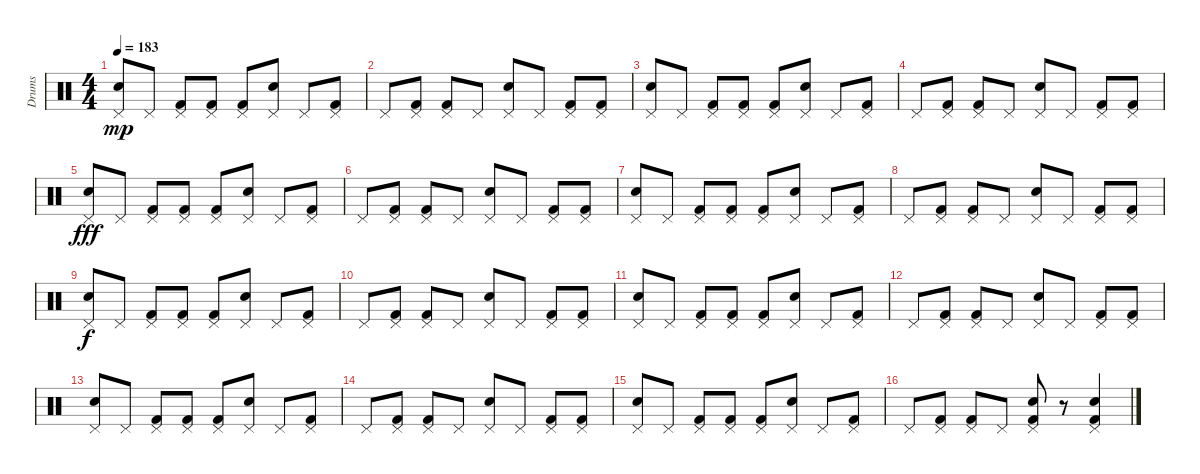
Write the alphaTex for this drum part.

\track ("Drums" "Drums") {instrument percussion}
\staff {score}
\articulation defaults
\ts (4 4)
\tempo 183
\clef neutral
\ks c
("Snare (hit) 2" "Pedal Hi-Hat (hit)").8{dy mp} "Pedal Hi-Hat (hit)".8 ("Kick (hit) 2" "Pedal Hi-Hat (hit)").8 ("Kick (hit) 2" "Pedal Hi-Hat (hit)").8 ("Pedal Hi-Hat (hit)" "Kick (hit) 2").8 ("Snare (hit) 2" "Pedal Hi-Hat (hit)").8 "Pedal Hi-Hat (hit)".8 ("Kick (hit) 2" "Pedal Hi-Hat (hit)").8 |
"Pedal Hi-Hat (hit)".8 ("Kick (hit) 2" "Pedal Hi-Hat (hit)").8 ("Kick (hit) 2" "Pedal Hi-Hat (hit)").8 "Pedal Hi-Hat (hit)".8 ("Snare (hit) 2" "Pedal Hi-Hat (hit)").8 "Pedal Hi-Hat (hit)".8 ("Kick (hit) 2" "Pedal Hi-Hat (hit)").8 ("Pedal Hi-Hat (hit)" "Kick (hit) 2").8 |
("Snare (hit) 2" "Pedal Hi-Hat (hit)").8 "Pedal Hi-Hat (hit)".8 ("Kick (hit) 2" "Pedal Hi-Hat (hit)").8 ("Pedal Hi-Hat (hit)" "Kick (hit) 2").8 ("Kick (hit) 2" "Pedal Hi-Hat (hit)").8 ("Pedal Hi-Hat (hit)" "Snare (hit) 2").8 "Pedal Hi-Hat (hit)".8 ("Kick (hit) 2" "Pedal Hi-Hat (hit)").8 |
"Pedal Hi-Hat (hit)".8 ("Pedal Hi-Hat (hit)" "Kick (hit) 2").8 ("Kick (hit) 2" "Pedal Hi-Hat (hit)").8 "Pedal Hi-Hat (hit)".8 ("Snare (hit) 2" "Pedal Hi-Hat (hit)").8 "Pedal Hi-Hat (hit)".8 ("Pedal Hi-Hat (hit)" "Kick (hit) 2").8 ("Pedal Hi-Hat (hit)" "Kick (hit) 2").8 |
("Pedal Hi-Hat (hit)" "Snare (hit) 2").8{dy fff} "Pedal Hi-Hat (hit)".8 ("Kick (hit) 2" "Pedal Hi-Hat (hit)").8 ("Kick (hit) 2" "Pedal Hi-Hat (hit)").8 ("Kick (hit) 2" "Pedal Hi-Hat (hit)").8 ("Pedal Hi-Hat (hit)" "Snare (hit) 2").8 "Pedal Hi-Hat (hit)".8 ("Kick (hit) 2" "Pedal Hi-Hat (hit)").8 |
"Pedal Hi-Hat (hit)".8 ("Kick (hit) 2" "Pedal Hi-Hat (hit)").8 ("Kick (hit) 2" "Pedal Hi-Hat (hit)").8 "Pedal Hi-Hat (hit)".8 ("Pedal Hi-Hat (hit)" "Snare (hit) 2").8 "Pedal Hi-Hat (hit)".8 ("Kick (hit) 2" "Pedal Hi-Hat (hit)").8 ("Kick (hit) 2" "Pedal Hi-Hat (hit)").8 |
("Snare (hit) 2" "Pedal Hi-Hat (hit)").8 "Pedal Hi-Hat (hit)".8 ("Kick (hit) 2" "Pedal Hi-Hat (hit)").8 ("Kick (hit) 2" "Pedal Hi-Hat (hit)").8 ("Kick (hit) 2" "Pedal Hi-Hat (hit)").8 ("Snare (hit) 2" "Pedal Hi-Hat (hit)").8 "Pedal Hi-Hat (hit)".8 ("Kick (hit) 2" "Pedal Hi-Hat (hit)").8 |
"Pedal Hi-Hat (hit)".8 ("Kick (hit) 2" "Pedal Hi-Hat (hit)").8 ("Kick (hit) 2" "Pedal Hi-Hat (hit)").8 "Pedal Hi-Hat (hit)".8 ("Snare (hit) 2" "Pedal Hi-Hat (hit)").8 "Pedal Hi-Hat (hit)".8 ("Pedal Hi-Hat (hit)" "Kick (hit) 2").8 ("Kick (hit) 2" "Pedal Hi-Hat (hit)").8 |
("Snare (hit) 2" "Pedal Hi-Hat (hit)").8{dy f} "Pedal Hi-Hat (hit)".8 ("Kick (hit) 2" "Pedal Hi-Hat (hit)").8 ("Kick (hit) 2" "Pedal Hi-Hat (hit)").8 ("Kick (hit) 2" "Pedal Hi-Hat (hit)").8 ("Snare (hit) 2" "Pedal Hi-Hat (hit)").8 "Pedal Hi-Hat (hit)".8 ("Kick (hit) 2" "Pedal Hi-Hat (hit)").8 |
"Pedal Hi-Hat (hit)".8 ("Kick (hit) 2" "Pedal Hi-Hat (hit)").8 ("Kick (hit) 2" "Pedal Hi-Hat (hit)").8 "Pedal Hi-Hat (hit)".8 ("Snare (hit) 2" "Pedal Hi-Hat (hit)").8 "Pedal Hi-Hat (hit)".8 ("Kick (hit) 2" "Pedal Hi-Hat (hit)").8 ("Kick (hit) 2" "Pedal Hi-Hat (hit)").8 |
("Snare (hit) 2" "Pedal Hi-Hat (hit)").8 "Pedal Hi-Hat (hit)".8 ("Kick (hit) 2" "Pedal Hi-Hat (hit)").8 ("Pedal Hi-Hat (hit)" "Kick (hit) 2").8 ("Kick (hit) 2" "Pedal Hi-Hat (hit)").8 ("Snare (hit) 2" "Pedal Hi-Hat (hit)").8 "Pedal Hi-Hat (hit)".8 ("Kick (hit) 2" "Pedal Hi-Hat (hit)").8 |
"Pedal Hi-Hat (hit)".8 ("Kick (hit) 2" "Pedal Hi-Hat (hit)").8 ("Kick (hit) 2" "Pedal Hi-Hat (hit)").8 "Pedal Hi-Hat (hit)".8 ("Snare (hit) 2" "Pedal Hi-Hat (hit)").8 "Pedal Hi-Hat (hit)".8 ("Kick (hit) 2" "Pedal Hi-Hat (hit)").8 ("Kick (hit) 2" "Pedal Hi-Hat (hit)").8 |
("Snare (hit) 2" "Pedal Hi-Hat (hit)").8 "Pedal Hi-Hat (hit)".8 ("Pedal Hi-Hat (hit)" "Kick (hit) 2").8 ("Kick (hit) 2" "Pedal Hi-Hat (hit)").8 ("Kick (hit) 2" "Pedal Hi-Hat (hit)").8 ("Snare (hit) 2" "Pedal Hi-Hat (hit)").8 "Pedal Hi-Hat (hit)".8 ("Kick (hit) 2" "Pedal Hi-Hat (hit)").8 |
"Pedal Hi-Hat (hit)".8 ("Pedal Hi-Hat (hit)" "Kick (hit) 2").8 ("Kick (hit) 2" "Pedal Hi-Hat (hit)").8 "Pedal Hi-Hat (hit)".8 ("Snare (hit) 2" "Pedal Hi-Hat (hit)").8 "Pedal Hi-Hat (hit)".8 ("Kick (hit) 2" "Pedal Hi-Hat (hit)").8 ("Kick (hit) 2" "Pedal Hi-Hat (hit)").8 |
("Pedal Hi-Hat (hit)" "Snare (hit) 2").8 "Pedal Hi-Hat (hit)".8 ("Kick (hit) 2" "Pedal Hi-Hat (hit)").8 ("Kick (hit) 2" "Pedal Hi-Hat (hit)").8 ("Pedal Hi-Hat (hit)" "Kick (hit) 2").8 ("Snare (hit) 2" "Pedal Hi-Hat (hit)").8 "Pedal Hi-Hat (hit)".8 ("Kick (hit) 2" "Pedal Hi-Hat (hit)").8 |
"Pedal Hi-Hat (hit)".8 ("Kick (hit) 2" "Pedal Hi-Hat (hit)").8 ("Kick (hit) 2" "Pedal Hi-Hat (hit)").8 "Pedal Hi-Hat (hit)".8 ("Kick (hit) 2" "Snare (hit) 2" "Pedal Hi-Hat (hit)").8 r.8 ("Pedal Hi-Hat (hit)" "Snare (hit) 2" "Kick (hit) 2").4
